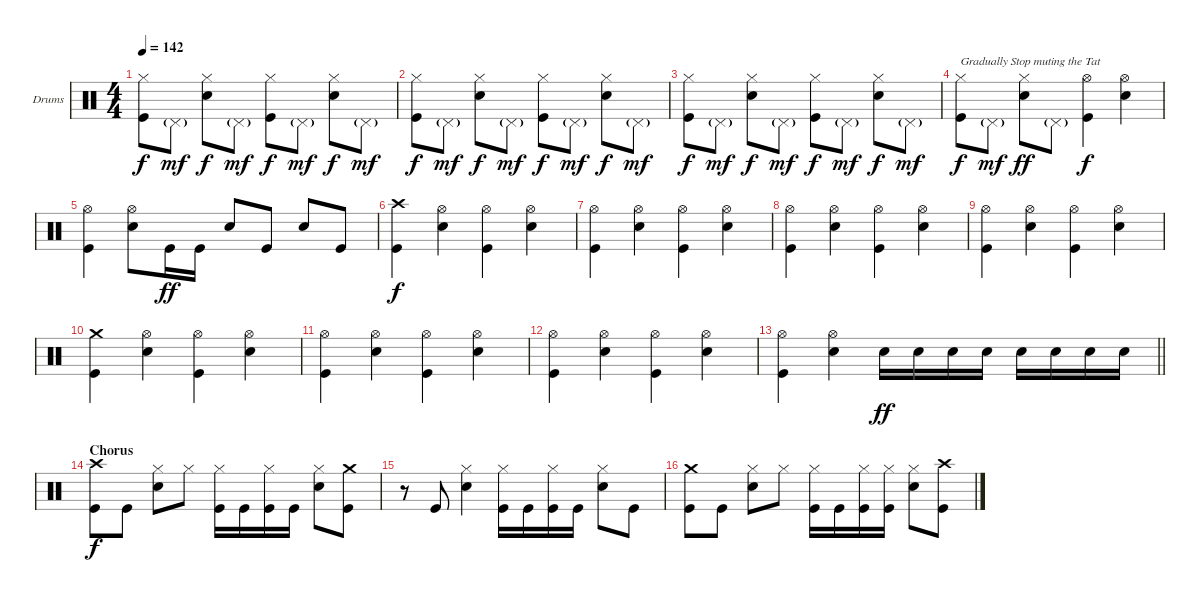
\bracketExtendMode groupsimilarinstruments
\firstSystemTrackNameOrientation horizontal
\otherSystemsTrackNameOrientation horizontal
\track ("Percussion" "Drums") {instrument percussion}
\staff {score}
\articulation defaults
\ts (4 4)
\tempo 142
\clef neutral
\ks c
("Hi-Hat (closed)" "Kick (hit)").8{dy f} "Pedal Hi-Hat (hit)"{g}.8{dy mf} ("Hi-Hat (closed)" "Snare (hit) 2").8{dy f} "Pedal Hi-Hat (hit)"{g}.8{dy mf} ("Hi-Hat (closed)" "Kick (hit)").8{dy f} "Pedal Hi-Hat (hit)"{g}.8{dy mf} ("Hi-Hat (closed)" "Snare (hit) 2").8{dy f} "Pedal Hi-Hat (hit)"{g}.8{dy mf} |
("Hi-Hat (closed)" "Kick (hit)").8{dy f} "Pedal Hi-Hat (hit)"{g}.8{dy mf} ("Hi-Hat (closed)" "Snare (hit) 2").8{dy f} "Pedal Hi-Hat (hit)"{g}.8{dy mf} ("Hi-Hat (closed)" "Kick (hit)").8{dy f} "Pedal Hi-Hat (hit)"{g}.8{dy mf} ("Hi-Hat (closed)" "Snare (hit) 2").8{dy f} "Pedal Hi-Hat (hit)"{g}.8{dy mf} |
("Hi-Hat (closed)" "Kick (hit)").8{dy f} "Pedal Hi-Hat (hit)"{g}.8{dy mf} ("Hi-Hat (closed)" "Snare (hit) 2").8{dy f} "Pedal Hi-Hat (hit)"{g}.8{dy mf} ("Hi-Hat (closed)" "Kick (hit)").8{dy f} "Pedal Hi-Hat (hit)"{g}.8{dy mf} ("Hi-Hat (closed)" "Snare (hit) 2").8{dy f} "Pedal Hi-Hat (hit)"{g}.8{dy mf} |
("Hi-Hat (closed)" "Kick (hit)").8{txt "Gradually Stop muting the Tat" dy f} "Pedal Hi-Hat (hit)"{g}.8{dy mf} ("Hi-Hat (closed)" "Snare (hit) 2").8{dy ff} "Pedal Hi-Hat (hit)"{g}.8 ("Hi-Hat (open)" "Kick (hit)").4{dy f} ("Hi-Hat (open)" "Snare (hit) 2").4 |
("Hi-Hat (open)" "Kick (hit)").4 ("Hi-Hat (open)" "Snare (hit) 2").8 "Kick (hit)".16{dy ff} "Kick (hit)".16 "Snare (hit) 2".8 "Kick (hit)".8 "Snare (hit) 2".8 "Kick (hit)".8 |
("Crash high (hit)" "Kick (hit)").4{dy f} ("Hi-Hat (open)" "Snare (hit) 2").4 ("Hi-Hat (open)" "Kick (hit)").4 ("Hi-Hat (open)" "Snare (hit) 2").4 |
("Hi-Hat (open)" "Kick (hit)").4 ("Hi-Hat (open)" "Snare (hit) 2").4 ("Hi-Hat (open)" "Kick (hit)").4 ("Hi-Hat (open)" "Snare (hit) 2").4 |
("Hi-Hat (open)" "Kick (hit)").4 ("Hi-Hat (open)" "Snare (hit) 2").4 ("Hi-Hat (open)" "Kick (hit)").4 ("Hi-Hat (open)" "Snare (hit) 2").4 |
("Hi-Hat (open)" "Kick (hit)").4 ("Hi-Hat (open)" "Snare (hit) 2").4 ("Hi-Hat (open)" "Kick (hit)").4 ("Hi-Hat (open)" "Snare (hit) 2").4 |
("Crash medium (hit)" "Kick (hit)").4 ("Hi-Hat (open)" "Snare (hit) 2").4 ("Hi-Hat (open)" "Kick (hit)").4 ("Hi-Hat (open)" "Snare (hit) 2").4 |
("Hi-Hat (open)" "Kick (hit)").4 ("Hi-Hat (open)" "Snare (hit) 2").4 ("Hi-Hat (open)" "Kick (hit)").4 ("Hi-Hat (open)" "Snare (hit) 2").4 |
("Hi-Hat (open)" "Kick (hit)").4 ("Hi-Hat (open)" "Snare (hit) 2").4 ("Hi-Hat (open)" "Kick (hit)").4 ("Hi-Hat (open)" "Snare (hit) 2").4 |
\barLineRight lightlight
("Hi-Hat (open)" "Kick (hit)").4 ("Hi-Hat (open)" "Snare (hit) 2").4 "Snare (hit) 2".16{dy ff} "Snare (hit) 2".16 "Snare (hit) 2".16 "Snare (hit) 2".16 "Snare (hit) 2".16 "Snare (hit) 2".16 "Snare (hit) 2".16 "Snare (hit) 2".16 |
\section ("" "Chorus")
("Crash high (hit)" "Kick (hit)").8{dy f} "Kick (hit)".8 ("Hi-Hat (closed)" "Snare (hit) 2").8 "Hi-Hat (closed)".8 ("Hi-Hat (closed)" "Kick (hit)").16 "Kick (hit)".16 ("Hi-Hat (closed)" "Kick (hit)").16 "Kick (hit)".16 ("Hi-Hat (closed)" "Snare (hit) 2").8 ("Crash medium (hit)" "Kick (hit)").8 |
r.8 "Kick (hit)".8 ("Hi-Hat (closed)" "Snare (hit) 2").4 ("Hi-Hat (closed)" "Kick (hit)").16 "Kick (hit)".16 ("Hi-Hat (closed)" "Kick (hit)").16 "Kick (hit)".16 ("Hi-Hat (closed)" "Snare (hit) 2").8 "Kick (hit)".8 |
("Crash medium (hit)" "Kick (hit)").8 "Kick (hit)".8 ("Hi-Hat (closed)" "Snare (hit) 2").8 "Hi-Hat (closed)".8 ("Hi-Hat (closed)" "Kick (hit)").16 "Kick (hit)".16 ("Hi-Hat (closed)" "Kick (hit)").16 ("Hi-Hat (closed)" "Kick (hit)").16 ("Hi-Hat (closed)" "Snare (hit) 2").8 ("Crash high (hit)" "Kick (hit)").8
